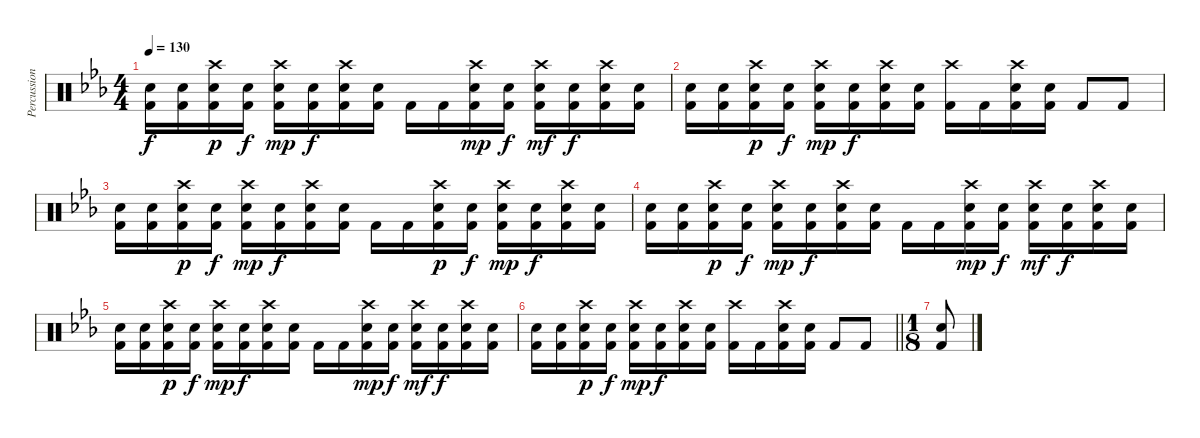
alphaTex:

\track ("Percussion" "Percussion") {instrument percussion}
\staff {score}
\articulation defaults
\ts (4 4)
\tempo 130
\clef neutral
\ks eb
("Electric Snare (hit)" "Kick (hit) 2").16{dy f} ("Electric Snare (hit)" "Kick (hit) 2").16 ("Crash high (hit)" "Electric Snare (hit)" "Kick (hit) 2").16{dy p} ("Electric Snare (hit)" "Kick (hit) 2").16{dy f} ("Crash high (hit)" "Electric Snare (hit)" "Kick (hit) 2").16{dy mp} ("Electric Snare (hit)" "Kick (hit) 2").16{dy f} ("Crash high (hit)" "Electric Snare (hit)" "Kick (hit) 2").16 ("Electric Snare (hit)" "Kick (hit) 2").16 "Kick (hit) 2".16 "Kick (hit) 2".16 ("Crash high (hit)" "Electric Snare (hit)" "Kick (hit) 2").16{dy mp} ("Electric Snare (hit)" "Kick (hit) 2").16{dy f} ("Crash high (hit)" "Electric Snare (hit)" "Kick (hit) 2").16{dy mf} ("Electric Snare (hit)" "Kick (hit) 2").16{dy f} ("Crash high (hit)" "Electric Snare (hit)" "Kick (hit) 2").16 ("Electric Snare (hit)" "Kick (hit) 2").16 |
("Electric Snare (hit)" "Kick (hit) 2").16 ("Electric Snare (hit)" "Kick (hit) 2").16 ("Crash high (hit)" "Electric Snare (hit)" "Kick (hit) 2").16{dy p} ("Electric Snare (hit)" "Kick (hit) 2").16{dy f} ("Crash high (hit)" "Electric Snare (hit)" "Kick (hit) 2").16{dy mp} ("Electric Snare (hit)" "Kick (hit) 2").16{dy f} ("Crash high (hit)" "Electric Snare (hit)" "Kick (hit) 2").16 ("Electric Snare (hit)" "Kick (hit) 2").16 ("Crash high (hit)" "Kick (hit) 2").16 "Kick (hit) 2".16 ("Crash high (hit)" "Electric Snare (hit)" "Kick (hit) 2").16 ("Electric Snare (hit)" "Kick (hit) 2").16 "Kick (hit) 2".8 "Kick (hit) 2".8 |
("Electric Snare (hit)" "Kick (hit) 2").16 ("Electric Snare (hit)" "Kick (hit) 2").16 ("Crash high (hit)" "Electric Snare (hit)" "Kick (hit) 2").16{dy p} ("Electric Snare (hit)" "Kick (hit) 2").16{dy f} ("Crash high (hit)" "Electric Snare (hit)" "Kick (hit) 2").16{dy mp} ("Electric Snare (hit)" "Kick (hit) 2").16{dy f} ("Crash high (hit)" "Electric Snare (hit)" "Kick (hit) 2").16 ("Electric Snare (hit)" "Kick (hit) 2").16 "Kick (hit) 2".16 "Kick (hit) 2".16 ("Crash high (hit)" "Electric Snare (hit)" "Kick (hit) 2").16{dy p} ("Electric Snare (hit)" "Kick (hit) 2").16{dy f} ("Crash high (hit)" "Electric Snare (hit)" "Kick (hit) 2").16{dy mp} ("Electric Snare (hit)" "Kick (hit) 2").16{dy f} ("Crash high (hit)" "Electric Snare (hit)" "Kick (hit) 2").16 ("Electric Snare (hit)" "Kick (hit) 2").16 |
("Electric Snare (hit)" "Kick (hit) 2").16 ("Electric Snare (hit)" "Kick (hit) 2").16 ("Crash high (hit)" "Electric Snare (hit)" "Kick (hit) 2").16{dy p} ("Electric Snare (hit)" "Kick (hit) 2").16{dy f} ("Crash high (hit)" "Electric Snare (hit)" "Kick (hit) 2").16{dy mp} ("Electric Snare (hit)" "Kick (hit) 2").16{dy f} ("Crash high (hit)" "Electric Snare (hit)" "Kick (hit) 2").16 ("Electric Snare (hit)" "Kick (hit) 2").16 "Kick (hit) 2".16 "Kick (hit) 2".16 ("Crash high (hit)" "Electric Snare (hit)" "Kick (hit) 2").16{dy mp} ("Electric Snare (hit)" "Kick (hit) 2").16{dy f} ("Crash high (hit)" "Electric Snare (hit)" "Kick (hit) 2").16{dy mf} ("Electric Snare (hit)" "Kick (hit) 2").16{dy f} ("Crash high (hit)" "Electric Snare (hit)" "Kick (hit) 2").16 ("Electric Snare (hit)" "Kick (hit) 2").16 |
("Electric Snare (hit)" "Kick (hit) 2").16 ("Electric Snare (hit)" "Kick (hit) 2").16 ("Crash high (hit)" "Electric Snare (hit)" "Kick (hit) 2").16{dy p} ("Electric Snare (hit)" "Kick (hit) 2").16{dy f} ("Crash high (hit)" "Electric Snare (hit)" "Kick (hit) 2").16{dy mp} ("Electric Snare (hit)" "Kick (hit) 2").16{dy f} ("Crash high (hit)" "Electric Snare (hit)" "Kick (hit) 2").16 ("Electric Snare (hit)" "Kick (hit) 2").16 "Kick (hit) 2".16 "Kick (hit) 2".16 ("Crash high (hit)" "Electric Snare (hit)" "Kick (hit) 2").16{dy mp} ("Electric Snare (hit)" "Kick (hit) 2").16{dy f} ("Crash high (hit)" "Electric Snare (hit)" "Kick (hit) 2").16{dy mf} ("Electric Snare (hit)" "Kick (hit) 2").16{dy f} ("Crash high (hit)" "Electric Snare (hit)" "Kick (hit) 2").16 ("Electric Snare (hit)" "Kick (hit) 2").16 |
\barLineRight lightlight
("Electric Snare (hit)" "Kick (hit) 2").16 ("Electric Snare (hit)" "Kick (hit) 2").16 ("Crash high (hit)" "Electric Snare (hit)" "Kick (hit) 2").16{dy p} ("Electric Snare (hit)" "Kick (hit) 2").16{dy f} ("Crash high (hit)" "Electric Snare (hit)" "Kick (hit) 2").16{dy mp} ("Electric Snare (hit)" "Kick (hit) 2").16{dy f} ("Crash high (hit)" "Electric Snare (hit)" "Kick (hit) 2").16 ("Electric Snare (hit)" "Kick (hit) 2").16 ("Crash high (hit)" "Kick (hit) 2").16 "Kick (hit) 2".16 ("Crash high (hit)" "Electric Snare (hit)" "Kick (hit) 2").16 ("Electric Snare (hit)" "Kick (hit) 2").16 "Kick (hit) 2".8 "Kick (hit) 2".8 |
\ts (1 8)
("Electric Snare (hit)" "Kick (hit) 2").8
